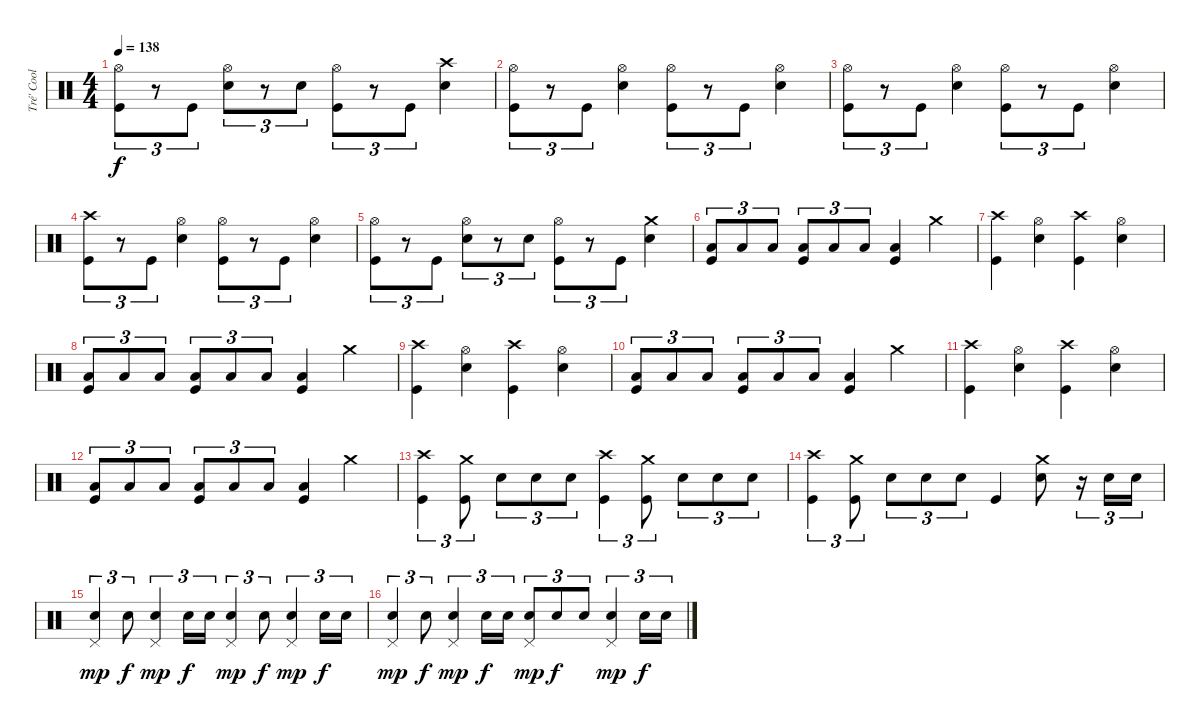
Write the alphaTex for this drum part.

\track ("Tré' Cool" "Tré' Cool") {instrument percussion}
\staff {score}
\articulation defaults
\ts (4 4)
\tempo 138
\clef neutral
\ks c
("Hi-Hat (open)" "Kick (hit)").8{tu (3 2) dy f} r.8{tu (3 2)} "Kick (hit)".8{tu (3 2)} ("Hi-Hat (open)" "Electric Snare (hit)").8{tu (3 2)} r.8{tu (3 2)} "Electric Snare (hit)".8{tu (3 2)} ("Hi-Hat (open)" "Kick (hit)").8{tu (3 2)} r.8{tu (3 2)} "Kick (hit)".8{tu (3 2)} ("Crash high (hit)" "Electric Snare (hit)").4 |
("Hi-Hat (open)" "Kick (hit)").8{tu (3 2)} r.8{tu (3 2)} "Kick (hit)".8{tu (3 2)} ("Hi-Hat (open)" "Electric Snare (hit)").4 ("Hi-Hat (open)" "Kick (hit)").8{tu (3 2)} r.8{tu (3 2)} "Kick (hit)".8{tu (3 2)} ("Hi-Hat (open)" "Electric Snare (hit)").4 |
("Hi-Hat (open)" "Kick (hit)").8{tu (3 2)} r.8{tu (3 2)} "Kick (hit)".8{tu (3 2)} ("Hi-Hat (open)" "Electric Snare (hit)").4 ("Hi-Hat (open)" "Kick (hit)").8{tu (3 2)} r.8{tu (3 2)} "Kick (hit)".8{tu (3 2)} ("Hi-Hat (open)" "Electric Snare (hit)").4 |
("Crash high (hit)" "Kick (hit)").8{tu (3 2)} r.8{tu (3 2)} "Kick (hit)".8{tu (3 2)} ("Hi-Hat (open)" "Electric Snare (hit)").4 ("Hi-Hat (open)" "Kick (hit)").8{tu (3 2)} r.8{tu (3 2)} "Kick (hit)".8{tu (3 2)} ("Hi-Hat (open)" "Electric Snare (hit)").4 |
("Hi-Hat (open)" "Kick (hit)").8{tu (3 2)} r.8{tu (3 2)} "Kick (hit)".8{tu (3 2)} ("Hi-Hat (open)" "Electric Snare (hit)").8{tu (3 2)} r.8{tu (3 2)} "Electric Snare (hit)".8{tu (3 2)} ("Hi-Hat (open)" "Kick (hit)").8{tu (3 2)} r.8{tu (3 2)} "Kick (hit)".8{tu (3 2)} ("Crash medium (hit)" "Electric Snare (hit)").4 |
("Low Floor Tom (hit)" "Kick (hit)").8{tu (3 2)} "Low Floor Tom (hit)".8{tu (3 2)} "Low Floor Tom (hit)".8{tu (3 2)} ("Low Floor Tom (hit)" "Kick (hit)").8{tu (3 2)} "Low Floor Tom (hit)".8{tu (3 2)} "Low Floor Tom (hit)".8{tu (3 2)} ("Low Floor Tom (hit)" "Kick (hit)").4 "Crash medium (hit)".4 |
("Crash high (hit)" "Kick (hit)").4 ("Hi-Hat (open)" "Electric Snare (hit)").4 ("Crash high (hit)" "Kick (hit)").4 ("Hi-Hat (open)" "Electric Snare (hit)").4 |
("Low Floor Tom (hit)" "Kick (hit)").8{tu (3 2)} "Low Floor Tom (hit)".8{tu (3 2)} "Low Floor Tom (hit)".8{tu (3 2)} ("Low Floor Tom (hit)" "Kick (hit)").8{tu (3 2)} "Low Floor Tom (hit)".8{tu (3 2)} "Low Floor Tom (hit)".8{tu (3 2)} ("Low Floor Tom (hit)" "Kick (hit)").4 "Crash medium (hit)".4 |
("Crash high (hit)" "Kick (hit)").4 ("Hi-Hat (open)" "Electric Snare (hit)").4 ("Crash high (hit)" "Kick (hit)").4 ("Hi-Hat (open)" "Electric Snare (hit)").4 |
("Low Floor Tom (hit)" "Kick (hit)").8{tu (3 2)} "Low Floor Tom (hit)".8{tu (3 2)} "Low Floor Tom (hit)".8{tu (3 2)} ("Low Floor Tom (hit)" "Kick (hit)").8{tu (3 2)} "Low Floor Tom (hit)".8{tu (3 2)} "Low Floor Tom (hit)".8{tu (3 2)} ("Low Floor Tom (hit)" "Kick (hit)").4 "Crash medium (hit)".4 |
("Crash high (hit)" "Kick (hit)").4 ("Hi-Hat (open)" "Electric Snare (hit)").4 ("Crash high (hit)" "Kick (hit)").4 ("Hi-Hat (open)" "Electric Snare (hit)").4 |
("Low Floor Tom (hit)" "Kick (hit)").8{tu (3 2)} "Low Floor Tom (hit)".8{tu (3 2)} "Low Floor Tom (hit)".8{tu (3 2)} ("Low Floor Tom (hit)" "Kick (hit)").8{tu (3 2)} "Low Floor Tom (hit)".8{tu (3 2)} "Low Floor Tom (hit)".8{tu (3 2)} ("Low Floor Tom (hit)" "Kick (hit)").4 "Crash medium (hit)".4 |
("Crash high (hit)" "Kick (hit)").4{tu (3 2)} ("Crash medium (hit)" "Kick (hit)").8{tu (3 2)} "Electric Snare (hit)".8{tu (3 2)} "Electric Snare (hit)".8{tu (3 2)} "Electric Snare (hit)".8{tu (3 2)} ("Crash high (hit)" "Kick (hit)").4{tu (3 2)} ("Crash medium (hit)" "Kick (hit)").8{tu (3 2)} "Electric Snare (hit)".8{tu (3 2)} "Electric Snare (hit)".8{tu (3 2)} "Electric Snare (hit)".8{tu (3 2)} |
("Crash high (hit)" "Kick (hit)").4{tu (3 2)} ("Crash medium (hit)" "Kick (hit)").8{tu (3 2)} "Electric Snare (hit)".8{tu (3 2)} "Electric Snare (hit)".8{tu (3 2)} "Electric Snare (hit)".8{tu (3 2)} "Kick (hit)".4 ("Crash medium (hit)" "Electric Snare (hit)").8 r.16{tu (3 2)} "Electric Snare (hit)".16{tu (3 2)} "Electric Snare (hit)".16{tu (3 2)} |
("Electric Snare (hit)" "Pedal Hi-Hat (hit)").4{tu (3 2) dy mp} "Electric Snare (hit)".8{tu (3 2) dy f} ("Electric Snare (hit)" "Pedal Hi-Hat (hit)").4{tu (3 2) dy mp} "Electric Snare (hit)".16{tu (3 2) dy f} "Electric Snare (hit)".16{tu (3 2)} ("Electric Snare (hit)" "Pedal Hi-Hat (hit)").4{tu (3 2) dy mp} "Electric Snare (hit)".8{tu (3 2) dy f} ("Electric Snare (hit)" "Pedal Hi-Hat (hit)").4{tu (3 2) dy mp} "Electric Snare (hit)".16{tu (3 2) dy f} "Electric Snare (hit)".16{tu (3 2)} |
("Electric Snare (hit)" "Pedal Hi-Hat (hit)").4{tu (3 2) dy mp} "Electric Snare (hit)".8{tu (3 2) dy f} ("Electric Snare (hit)" "Pedal Hi-Hat (hit)").4{tu (3 2) dy mp} "Electric Snare (hit)".16{tu (3 2) dy f} "Electric Snare (hit)".16{tu (3 2)} ("Electric Snare (hit)" "Pedal Hi-Hat (hit)").8{tu (3 2) dy mp} "Electric Snare (hit)".8{tu (3 2) dy f} "Electric Snare (hit)".8{tu (3 2)} ("Electric Snare (hit)" "Pedal Hi-Hat (hit)").4{tu (3 2) dy mp} "Electric Snare (hit)".16{tu (3 2) dy f} "Electric Snare (hit)".16{tu (3 2)}
